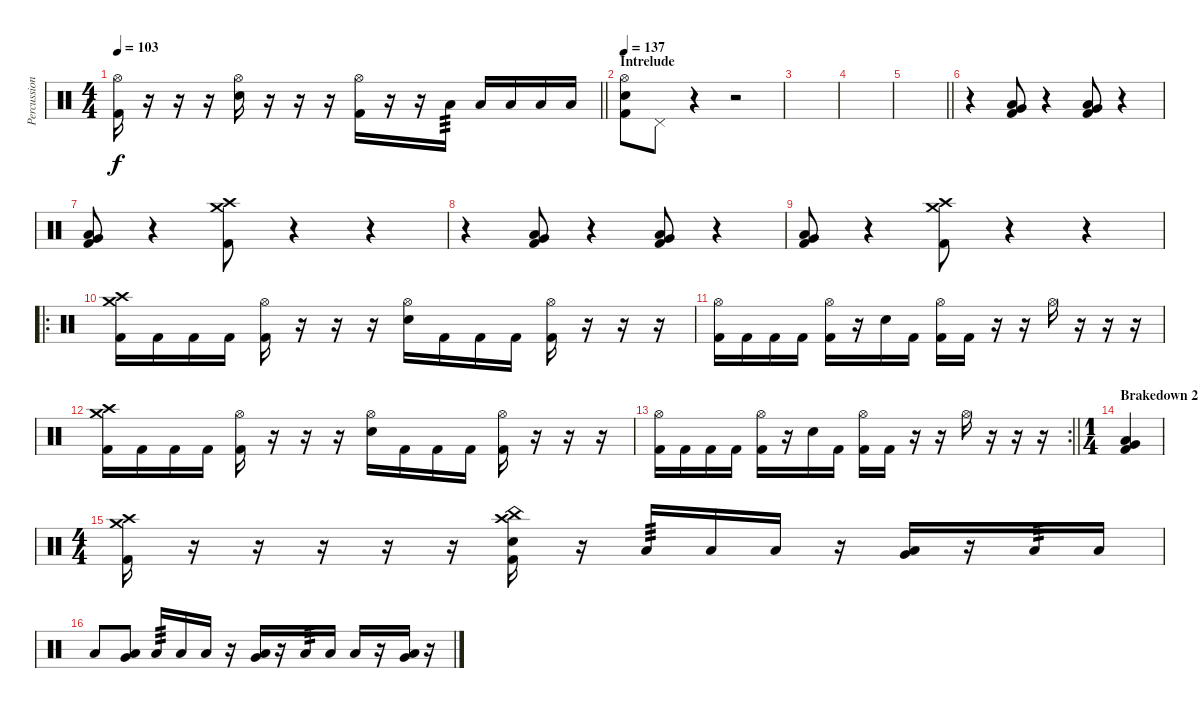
\track ("Percussion" "Percussion") {instrument percussion}
\staff {score}
\articulation defaults
\ts (4 4)
\tempo 103
\clef neutral
\barLineRight lightlight
\ks c
("Hi-Hat (open)" "Kick (hit) 2").16{dy f} r.16 r.16 r.16 ("Hi-Hat (open)" "Electric Snare (hit)").16 r.16 r.16 r.16 ("Hi-Hat (open)" "Kick (hit) 2").16 r.16 r.16 "Low Tom (hit)".16{tp 3} "Low Tom (hit)".16 "Low Tom (hit)".16 "Low Tom (hit)".16 "Low Tom (hit)".16 |
\section ("" "Intrelude")
\tempo 137
("Hi-Hat (open)" "Electric Snare (hit)" "Kick (hit) 2").8 "Pedal Hi-Hat (hit)".8 r.4 r.2 |
|
|
\barLineRight lightlight
|
\section ("" "")
r.4 ("Low Tom (hit)" "Very Low Tom (hit)" "Kick (hit) 2").8 r.4 ("Low Tom (hit)" "Very Low Tom (hit)" "Kick (hit) 2").8 r.4 |
("Low Tom (hit)" "Very Low Tom (hit)" "Kick (hit) 2").8 r.4 ("Crash high (hit)" "Crash medium (hit)" "Kick (hit) 2").8 r.4 r.4 |
r.4 ("Low Tom (hit)" "Very Low Tom (hit)" "Kick (hit) 2").8 r.4 ("Low Tom (hit)" "Very Low Tom (hit)" "Kick (hit) 2").8 r.4 |
("Low Tom (hit)" "Very Low Tom (hit)" "Kick (hit) 2").8 r.4 ("Crash high (hit)" "Crash medium (hit)" "Kick (hit) 2").8 r.4 r.4 |
\ro
("Crash high (hit)" "Crash medium (hit)" "Kick (hit) 2").16 "Kick (hit) 2".16 "Kick (hit) 2".16 "Kick (hit) 2".16 ("Hi-Hat (open)" "Kick (hit) 2").16 r.16 r.16 r.16 ("Hi-Hat (open)" "Electric Snare (hit)").16 "Kick (hit) 2".16 "Kick (hit) 2".16 "Kick (hit) 2".16 ("Hi-Hat (open)" "Kick (hit) 2").16 r.16 r.16 r.16 |
("Hi-Hat (open)" "Kick (hit) 2").16 "Kick (hit) 2".16 "Kick (hit) 2".16 "Kick (hit) 2".16 ("Hi-Hat (open)" "Kick (hit) 2").16 r.16 "Electric Snare (hit)".16 "Kick (hit) 2".16 ("Hi-Hat (open)" "Kick (hit) 2").16 "Kick (hit) 2".16 r.16 r.16 "Hi-Hat (open)".16 r.16 r.16 r.16 |
("Crash high (hit)" "Crash medium (hit)" "Kick (hit) 2").16 "Kick (hit) 2".16 "Kick (hit) 2".16 "Kick (hit) 2".16 ("Hi-Hat (open)" "Kick (hit) 2").16 r.16 r.16 r.16 ("Hi-Hat (open)" "Electric Snare (hit)").16 "Kick (hit) 2".16 "Kick (hit) 2".16 "Kick (hit) 2".16 ("Hi-Hat (open)" "Kick (hit) 2").16 r.16 r.16 r.16 |
\rc 2
\barLineRight lightlight
("Hi-Hat (open)" "Kick (hit) 2").16 "Kick (hit) 2".16 "Kick (hit) 2".16 "Kick (hit) 2".16 ("Hi-Hat (open)" "Kick (hit) 2").16 r.16 "Electric Snare (hit)".16 "Kick (hit) 2".16 ("Hi-Hat (open)" "Kick (hit) 2").16 "Kick (hit) 2".16 r.16 r.16 "Hi-Hat (open)".16 r.16 r.16 r.16 |
\ts (1 4)
\section ("" "Brakedown 2")
("Low Tom (hit)" "Very Low Tom (hit)" "Kick (hit) 2").4 |
\ts (4 4)
("Crash high (hit)" "Crash medium (hit)" "Kick (hit) 2").16 r.16 r.16 r.16 r.16 r.16 ("Crash high (hit)" "China (hit)" "Electric Snare (hit)" "Kick (hit) 2").16 r.16 "Low Tom (hit)".16{tp 3} "Low Tom (hit)".16 "Low Tom (hit)".16 r.16 ("Low Tom (hit)" "Very Low Tom (hit)").16 r.16 "Low Tom (hit)".16{tp 3} "Low Tom (hit)".16 |
"Low Tom (hit)".8 ("Low Tom (hit)" "Very Low Tom (hit)").8 "Low Tom (hit)".16{tp 3} "Low Tom (hit)".16 "Low Tom (hit)".16 r.16 ("Low Tom (hit)" "Very Low Tom (hit)").16 r.16 "Low Tom (hit)".16{tp 3} "Low Tom (hit)".16 "Low Tom (hit)".16 r.16 ("Low Tom (hit)" "Very Low Tom (hit)").16 r.16
